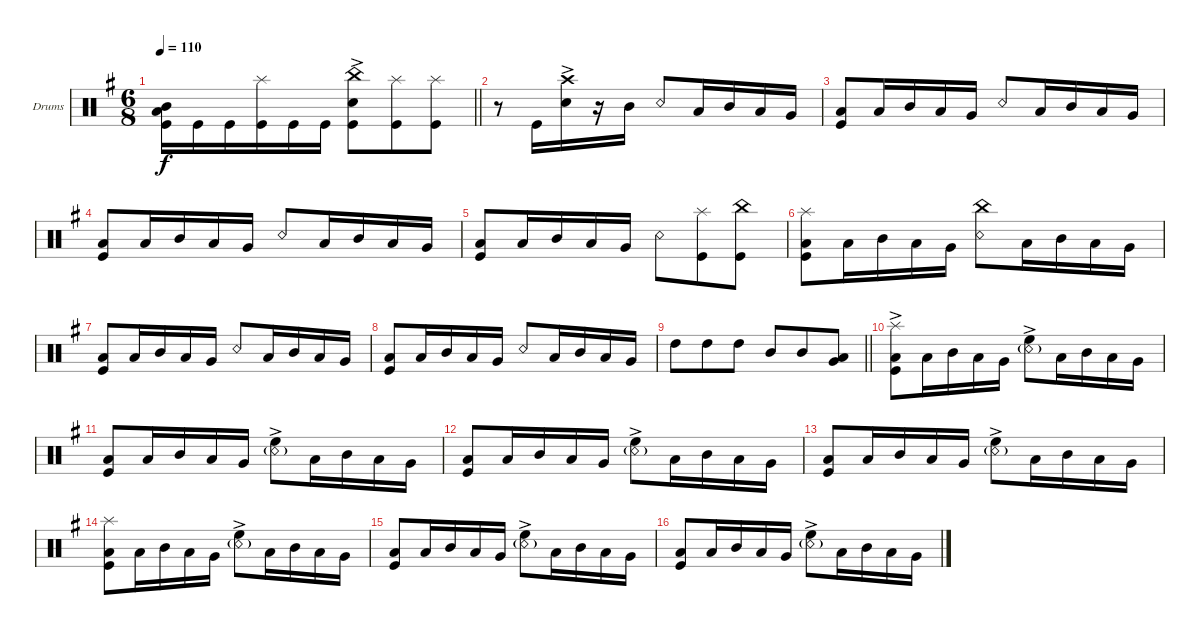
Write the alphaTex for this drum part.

\bracketExtendMode groupsimilarinstruments
\firstSystemTrackNameOrientation horizontal
\otherSystemsTrackNameOrientation horizontal
\track ("Drumkit" "Drums") {instrument percussion}
\staff {score}
\articulation defaults
\ts (6 8)
\tempo 110
\clef neutral
\barLineRight lightlight
\ks eminor
("Kick (hit)" "Mid Tom (hit)" "Low Tom (hit)").16{dy f} "Kick (hit)".16 "Kick (hit)".16 ("Kick (hit)" "Splash (hit)").16 "Kick (hit)".16 "Kick (hit)".16 ("Kick (hit)" "Snare (hit) 2"{ac} "China (hit)").8 ("Kick (hit)" "Splash (hit)").8 ("Kick (hit)" "Splash (hit)").8 |
r.8 "Kick (hit)".16 ("Snare (hit) 2"{ac} "Crash high (hit)").16 r.16 "Mid Tom (hit)".16 "Snare (rim shot)".8 "Low Tom (hit)".16 "Mid Tom (hit)".16 "Low Tom (hit)".16 "Very Low Tom (hit)".16 |
("Kick (hit)" "Low Tom (hit)").8 "Low Tom (hit)".16 "Mid Tom (hit)".16 "Low Tom (hit)".16 "Very Low Tom (hit)".16 "Snare (rim shot)".8 "Low Tom (hit)".16 "Mid Tom (hit)".16 "Low Tom (hit)".16 "Very Low Tom (hit)".16 |
("Kick (hit)" "Low Tom (hit)").8 "Low Tom (hit)".16 "Mid Tom (hit)".16 "Low Tom (hit)".16 "Very Low Tom (hit)".16 "Snare (rim shot)".8 "Low Tom (hit)".16 "Mid Tom (hit)".16 "Low Tom (hit)".16 "Very Low Tom (hit)".16 |
("Kick (hit)" "Low Tom (hit)").8 "Low Tom (hit)".16 "Mid Tom (hit)".16 "Low Tom (hit)".16 "Very Low Tom (hit)".16 "Snare (rim shot)".8 ("Kick (hit)" "Splash (hit)").8 ("Kick (hit)" "China (hit)").8 |
("Kick (hit)" "Low Tom (hit)" "Splash (hit)").8 "Low Tom (hit)".16 "Mid Tom (hit)".16 "Low Tom (hit)".16 "Very Low Tom (hit)".16 ("Snare (rim shot)" "China (hit)").8 "Low Tom (hit)".16 "Mid Tom (hit)".16 "Low Tom (hit)".16 "Very Low Tom (hit)".16 |
("Kick (hit)" "Low Tom (hit)").8 "Low Tom (hit)".16 "Mid Tom (hit)".16 "Low Tom (hit)".16 "Very Low Tom (hit)".16 "Snare (rim shot)".8 "Low Tom (hit)".16 "Mid Tom (hit)".16 "Low Tom (hit)".16 "Very Low Tom (hit)".16 |
("Kick (hit)" "Low Tom (hit)").8 "Low Tom (hit)".16 "Mid Tom (hit)".16 "Low Tom (hit)".16 "Very Low Tom (hit)".16 "Snare (rim shot)".8 "Low Tom (hit)".16 "Mid Tom (hit)".16 "Low Tom (hit)".16 "Very Low Tom (hit)".16 |
\barLineRight lightlight "High Tom (hit)".8 "High Tom (hit)".8 "High Tom (hit)".8 "Mid Tom (hit)".8 "Mid Tom (hit)".8
("Low Tom (hit)" "Very Low Tom (hit)").8 |
("Kick (hit)" "Low Tom (hit)" "Splash (hit)"{ac}).8 "Low Tom (hit)".16 "Mid Tom (hit)".16 "Low Tom (hit)".16 "Very Low Tom (hit)".16 ("High Floor Tom (hit)"{ac} "Snare (rim shot)"{g}).8 "Low Tom (hit)".16 "Mid Tom (hit)".16 "Low Tom (hit)".16 "Very Low Tom (hit)".16 |
("Kick (hit)" "Low Tom (hit)").8 "Low Tom (hit)".16 "Mid Tom (hit)".16 "Low Tom (hit)".16 "Very Low Tom (hit)".16 ("High Floor Tom (hit)"{ac} "Snare (rim shot)"{g}).8 "Low Tom (hit)".16 "Mid Tom (hit)".16 "Low Tom (hit)".16 "Very Low Tom (hit)".16 |
("Kick (hit)" "Low Tom (hit)").8 "Low Tom (hit)".16 "Mid Tom (hit)".16 "Low Tom (hit)".16 "Very Low Tom (hit)".16 ("High Floor Tom (hit)"{ac} "Snare (rim shot)"{g}).8 "Low Tom (hit)".16 "Mid Tom (hit)".16 "Low Tom (hit)".16 "Very Low Tom (hit)".16 |
("Kick (hit)" "Low Tom (hit)").8 "Low Tom (hit)".16 "Mid Tom (hit)".16 "Low Tom (hit)".16 "Very Low Tom (hit)".16 ("High Floor Tom (hit)"{ac} "Snare (rim shot)"{g}).8 "Low Tom (hit)".16 "Mid Tom (hit)".16 "Low Tom (hit)".16 "Very Low Tom (hit)".16 |
("Kick (hit)" "Low Tom (hit)" "Splash (hit)").8 "Low Tom (hit)".16 "Mid Tom (hit)".16 "Low Tom (hit)".16 "Very Low Tom (hit)".16 ("High Floor Tom (hit)"{ac} "Snare (rim shot)"{g}).8 "Low Tom (hit)".16 "Mid Tom (hit)".16 "Low Tom (hit)".16 "Very Low Tom (hit)".16 |
("Kick (hit)" "Low Tom (hit)").8 "Low Tom (hit)".16 "Mid Tom (hit)".16 "Low Tom (hit)".16 "Very Low Tom (hit)".16 ("High Floor Tom (hit)"{ac} "Snare (rim shot)"{g}).8 "Low Tom (hit)".16 "Mid Tom (hit)".16 "Low Tom (hit)".16 "Very Low Tom (hit)".16 |
("Kick (hit)" "Low Tom (hit)").8 "Low Tom (hit)".16 "Mid Tom (hit)".16 "Low Tom (hit)".16 "Very Low Tom (hit)".16 ("High Floor Tom (hit)"{ac} "Snare (rim shot)"{g}).8 "Low Tom (hit)".16 "Mid Tom (hit)".16 "Low Tom (hit)".16 "Very Low Tom (hit)".16
